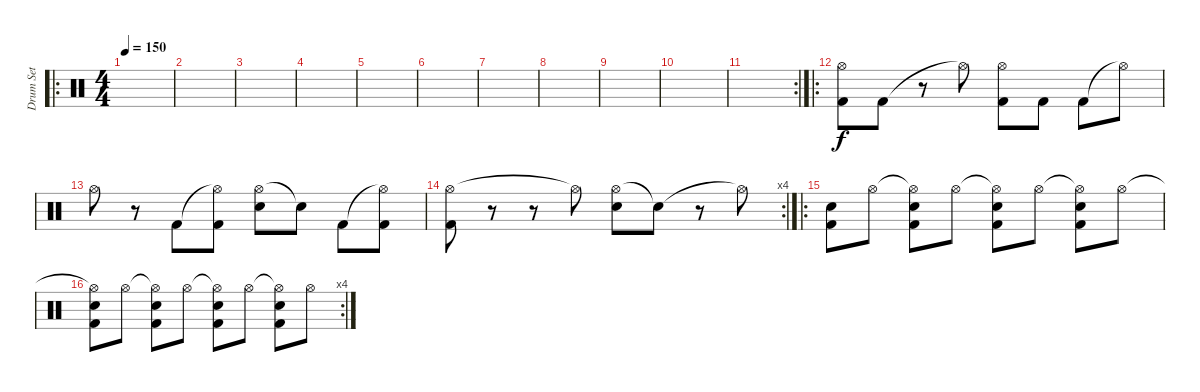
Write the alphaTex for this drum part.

\track ("Drum Set" "Drum Set") {instrument percussion}
\staff {score}
\articulation defaults
\ro
\ts (4 4)
\tempo 150
\clef neutral
\ks c
|
|
|
|
|
|
|
|
|
|
\rc 2
|
\ro
("Hi-Hat (open)" "Kick (hit) 2").8 "Kick (hit) 2".8 r.8 "Hi-Hat (open)"{t}.8 ("Hi-Hat (open)" "Kick (hit) 2").8 "Kick (hit) 2".8 "Kick (hit) 2".8 "Hi-Hat (open)"{t}.8 |
"Hi-Hat (open)".8 r.8 "Kick (hit) 2".8 ("Hi-Hat (open)"{t} "Kick (hit) 2").8 ("Hi-Hat (open)" "Snare (hit) 2").8 "Electric Snare (hit)"{t}.8 "Kick (hit) 2".8 ("Hi-Hat (open)"{t} "Kick (hit) 2").8 |
\rc 4
("Hi-Hat (open)" "Kick (hit) 2").8 r.8 r.8 "Hi-Hat (open)"{t}.8 ("Hi-Hat (open)" "Snare (hit) 2").8 "Snare (hit) 2"{t}.8 r.8 "Hi-Hat (open)"{t}.8 |
\ro
("Snare (hit) 2" "Kick (hit) 2").8 "Hi-Hat (open)".8 ("Hi-Hat (open)"{t} "Snare (hit) 2" "Kick (hit) 2").8 "Hi-Hat (open)".8 ("Hi-Hat (open)"{t} "Snare (hit) 2" "Kick (hit) 2").8 "Hi-Hat (open)".8 ("Hi-Hat (open)"{t} "Snare (hit) 2" "Kick (hit) 2").8 "Hi-Hat (open)".8 |
\rc 4
("Hi-Hat (open)"{t} "Snare (hit) 2" "Kick (hit) 2").8 "Hi-Hat (open)".8 ("Hi-Hat (open)"{t} "Snare (hit) 2" "Kick (hit) 2").8 "Hi-Hat (open)".8 ("Hi-Hat (open)"{t} "Snare (hit) 2" "Kick (hit) 2").8 "Hi-Hat (open)".8 ("Hi-Hat (open)"{t} "Snare (hit) 2" "Kick (hit) 2").8 "Hi-Hat (open)".8
